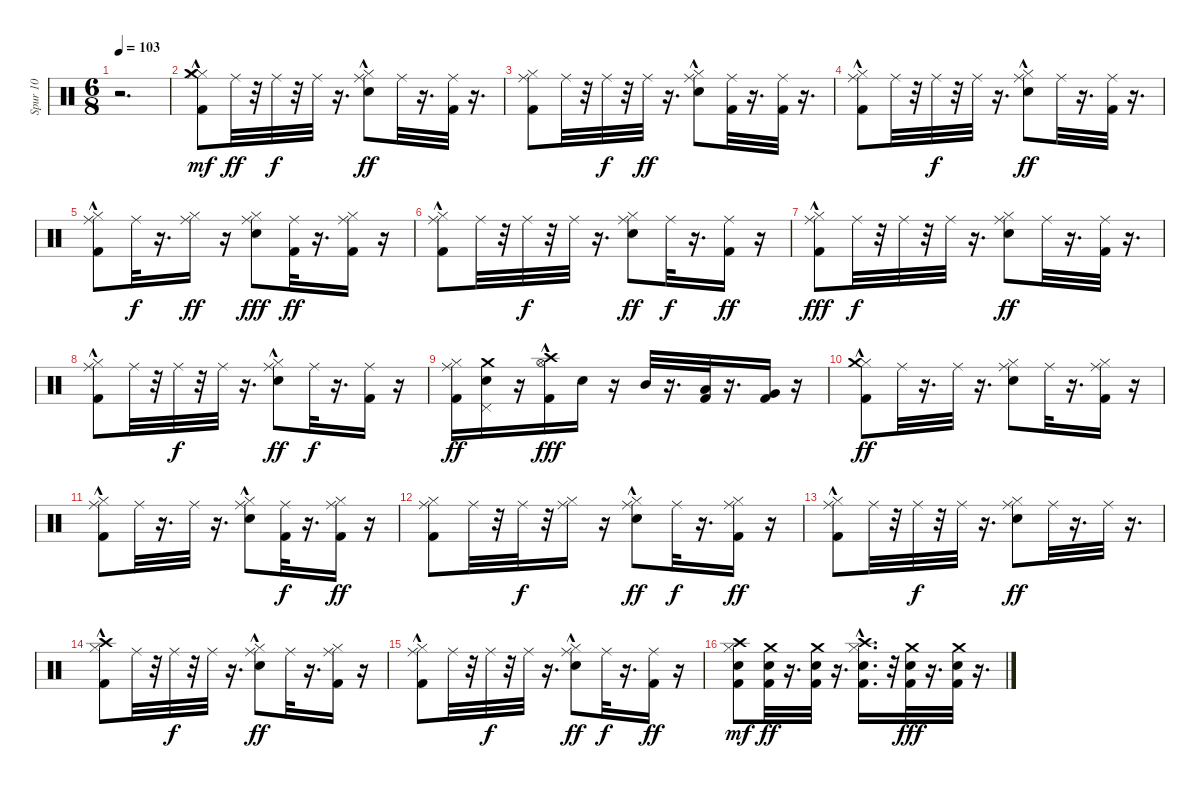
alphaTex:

\track ("Spur 10" "Spur 10") {instrument percussion}
\staff {score}
\articulation defaults
\ts (6 8)
\tempo 103
\clef neutral
\ks c
r.2{d dy fff} |
("Kick (hit) 2"{hac} "Hi-Hat (closed)" "Hi-Hat (closed)" "Crash medium (hit)").8{dy mf} "Ride (middle)".32{dy ff} r.32 "Ride (middle)".32{dy f} r.32 "Ride (middle)".32 r.16{d} ("Snare (hit) 2"{hac} "Hi-Hat (closed)" "Ride (middle)").8{dy ff} "Ride (middle)".32 r.16{d} ("Kick (hit) 2" "Ride (middle)").32 r.16{d} |
("Kick (hit) 2" "Hi-Hat (closed)" "Ride (middle)").8 "Ride (middle)".32 r.32 "Ride (middle)".32{dy f} r.32 "Ride (middle)".32{dy ff} r.16{d} ("Snare (hit) 2"{hac} "Hi-Hat (closed)" "Ride (middle)").8 ("Kick (hit) 2" "Ride (middle)").32 r.16{d} ("Kick (hit) 2" "Ride (middle)").32 r.16{d} |
("Kick (hit) 2"{hac} "Hi-Hat (closed)"{hac} "Ride (middle)").8 "Ride (middle)".32 r.32 "Ride (middle)".32{dy f} r.32 "Ride (middle)".32 r.16{d} ("Snare (hit) 2" "Hi-Hat (closed)"{hac} "Ride (middle)").8{dy ff} "Ride (middle)".32 r.16{d} ("Kick (hit) 2" "Ride (middle)").32 r.16{d} |
("Kick (hit) 2"{hac} "Hi-Hat (closed)" "Ride (middle)").8 "Ride (middle)".32{dy f} r.16{d} ("Hi-Hat (closed)" "Ride (middle)").16{dy ff} r.16 ("Snare (hit) 2" "Hi-Hat (closed)" "Ride (middle)").8{dy fff} ("Kick (hit) 2" "Ride (middle)").32{dy ff} r.16{d} ("Kick (hit) 2" "Hi-Hat (closed)" "Ride (middle)").16 r.16 |
("Kick (hit) 2"{hac} "Hi-Hat (closed)" "Ride (middle)").8 "Ride (middle)".32 r.32 "Ride (middle)".32{dy f} r.32 "Ride (middle)".32 r.16{d} ("Snare (hit) 2" "Hi-Hat (closed)" "Ride (middle)").8{dy ff} "Ride (middle)".32{dy f} r.16{d} ("Kick (hit) 2" "Ride (middle)").16{dy ff} r.16 |
("Kick (hit) 2"{hac} "Hi-Hat (closed)"{hac} "Ride (middle)").8{dy fff} "Ride (middle)".32{dy f} r.32 "Ride (middle)".32 r.32 "Ride (middle)".32 r.16{d} ("Snare (hit) 2" "Hi-Hat (closed)" "Ride (middle)").8{dy ff} "Ride (middle)".32 r.16{d} ("Kick (hit) 2" "Ride (middle)").32 r.16{d} |
("Kick (hit) 2"{hac} "Hi-Hat (closed)"{hac} "Ride (middle)").8 "Ride (middle)".32 r.32 "Ride (middle)".32{dy f} r.32 "Ride (middle)".32 r.16{d} ("Snare (hit) 2"{hac} "Hi-Hat (closed)" "Ride (middle)").8{dy ff} "Ride (middle)".32{dy f} r.16{d} ("Kick (hit) 2" "Ride (middle)").16 r.16 |
("Kick (hit) 2" "Hi-Hat (closed)" "Ride (middle)").16{dy ff} ("Snare (hit) 2" "Pedal Hi-Hat (hit)" "Crash medium (hit)").16 r.16 ("Kick (hit) 2"{hac} "Hi-Hat (open)" "Crash high (hit)").16{dy fff} "Snare (hit) 2".16 r.16 "Mid Tom (hit)".32 r.16{d} ("Kick (hit) 2" "Low Tom (hit)").32 r.16{d} ("Kick (hit) 2" "Very Low Tom (hit)").16 r.16 |
("Kick (hit) 2"{hac} "Hi-Hat (closed)" "Crash medium (hit)").8{dy ff} "Ride (middle)".32 r.16{d} "Ride (middle)".32 r.16{d} ("Snare (hit) 2" "Hi-Hat (closed)" "Ride (middle)").8 "Ride (middle)".32 r.16{d} ("Kick (hit) 2" "Hi-Hat (closed)" "Ride (middle)").16 r.16 |
("Kick (hit) 2"{hac} "Hi-Hat (closed)" "Ride (middle)").8 "Ride (middle)".32 r.16{d} "Ride (middle)".32 r.16{d} ("Snare (hit) 2"{hac} "Hi-Hat (closed)" "Ride (middle)").8 ("Kick (hit) 2" "Ride (middle)").32{dy f} r.16{d} ("Kick (hit) 2" "Hi-Hat (closed)" "Ride (middle)").16{dy ff} r.16 |
("Kick (hit) 2" "Hi-Hat (closed)" "Ride (middle)").8 "Ride (middle)".32 r.32 "Ride (middle)".32{dy f} r.32 ("Hi-Hat (closed)" "Ride (middle)").16 r.16 ("Snare (hit) 2"{hac} "Hi-Hat (closed)" "Ride (middle)").8{dy ff} "Ride (middle)".32{dy f} r.16{d} ("Kick (hit) 2" "Hi-Hat (closed)" "Ride (middle)").16{dy ff} r.16 |
("Kick (hit) 2"{hac} "Hi-Hat (closed)" "Ride (middle)").8 "Ride (middle)".32 r.32 "Ride (middle)".32{dy f} r.32 "Ride (middle)".32 r.16{d} ("Snare (hit) 2" "Hi-Hat (closed)" "Ride (middle)").8{dy ff} "Ride (middle)".32 r.16{d} "Ride (middle)".32 r.16{d} |
("Kick (hit) 2"{hac} "Hi-Hat (closed)"{hac} "Crash high (hit)").8 "Ride (middle)".32 r.32 "Ride (middle)".32{dy f} r.32 "Ride (middle)".32 r.16{d} ("Snare (hit) 2" "Hi-Hat (closed)"{hac} "Ride (middle)").8{dy ff} "Ride (middle)".32 r.16{d} ("Kick (hit) 2" "Hi-Hat (closed)" "Ride (middle)").16 r.16 |
("Kick (hit) 2"{hac} "Hi-Hat (closed)" "Ride (middle)").8 "Ride (middle)".32 r.32 "Ride (middle)".32{dy f} r.32 "Ride (middle)".32 r.16{d} ("Snare (hit) 2" "Hi-Hat (closed)"{hac} "Ride (middle)").8{dy ff} "Ride (middle)".32{dy f} r.16{d} ("Kick (hit) 2" "Ride (middle)").16{dy ff} r.16 |
("Kick (hit) 2" "Snare (hit) 2" "Hi-Hat (closed)" "Crash high (hit)").8{dy mf} ("Kick (hit) 2" "Snare (hit) 2" "Crash medium (hit)").32{dy ff} r.16{d} ("Kick (hit) 2" "Snare (hit) 2" "Crash medium (hit)").32 r.16{d} ("Kick (hit) 2" "Snare (hit) 2" "Hi-Hat (closed)"{hac} "Crash high (hit)").16{d} r.32 ("Kick (hit) 2" "Snare (hit) 2" "Crash medium (hit)").32{dy fff} r.16{d} ("Kick (hit) 2" "Snare (hit) 2" "Crash medium (hit)").32 r.16{d}
